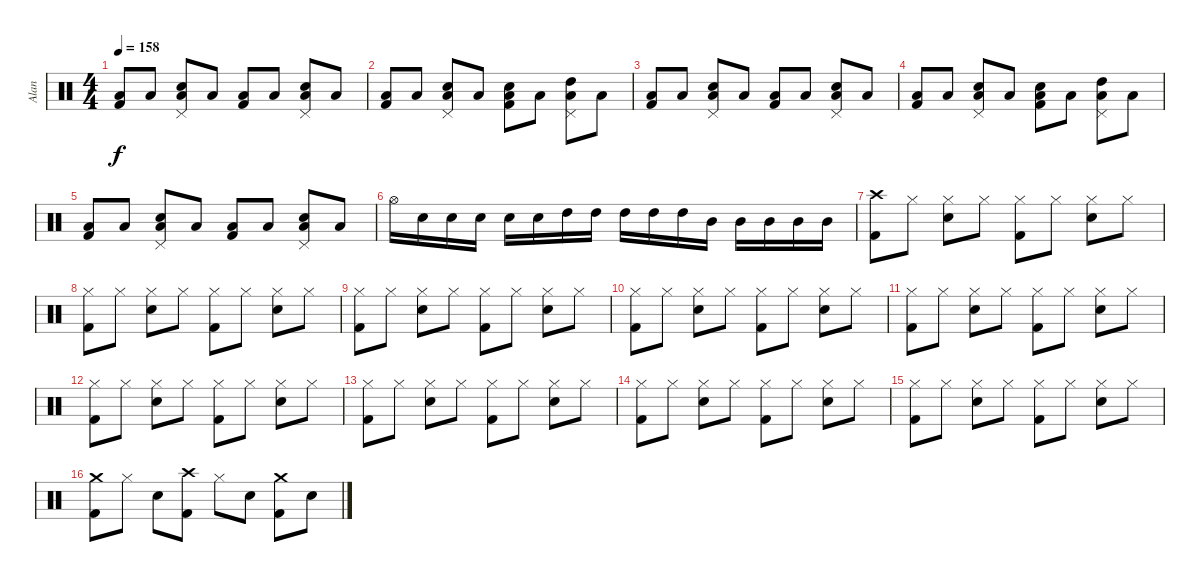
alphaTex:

\track ("Alan" "Alan") {instrument percussion}
\staff {score}
\articulation defaults
\ts (4 4)
\tempo 158
\clef neutral
\ks c
("Low Tom (hit)" "Kick (hit) 2").8{dy f} "Low Tom (hit)".8 ("Low Tom (hit)" "Electric Snare (hit)" "Pedal Hi-Hat (hit)").8 "Low Tom (hit)".8 ("Low Tom (hit)" "Kick (hit) 2").8 "Low Tom (hit)".8 ("Low Tom (hit)" "Electric Snare (hit)" "Pedal Hi-Hat (hit)").8 "Low Tom (hit)".8 |
("Low Tom (hit)" "Kick (hit) 2").8 "Low Tom (hit)".8 ("Low Tom (hit)" "Electric Snare (hit)" "Pedal Hi-Hat (hit)").8 "Low Tom (hit)".8 ("Low Tom (hit)" "Kick (hit) 2" "Electric Snare (hit)").8 "Low Tom (hit)".8 ("Low Tom (hit)" "High Tom (hit)" "Pedal Hi-Hat (hit)").8 "Low Tom (hit)".8 |
("Low Tom (hit)" "Kick (hit) 2").8 "Low Tom (hit)".8 ("Low Tom (hit)" "Electric Snare (hit)" "Pedal Hi-Hat (hit)").8 "Low Tom (hit)".8 ("Low Tom (hit)" "Kick (hit) 2").8 "Low Tom (hit)".8 ("Low Tom (hit)" "Electric Snare (hit)" "Pedal Hi-Hat (hit)").8 "Low Tom (hit)".8 |
("Low Tom (hit)" "Kick (hit) 2").8 "Low Tom (hit)".8 ("Low Tom (hit)" "Electric Snare (hit)" "Pedal Hi-Hat (hit)").8 "Low Tom (hit)".8 ("Low Tom (hit)" "Kick (hit) 2" "Electric Snare (hit)").8 "Low Tom (hit)".8 ("Low Tom (hit)" "High Tom (hit)" "Pedal Hi-Hat (hit)").8 "Low Tom (hit)".8 |
("Low Tom (hit)" "Kick (hit) 2").8 "Low Tom (hit)".8 ("Low Tom (hit)" "Electric Snare (hit)" "Pedal Hi-Hat (hit)").8 "Low Tom (hit)".8 ("Low Tom (hit)" "Kick (hit) 2").8 "Low Tom (hit)".8 ("Low Tom (hit)" "Electric Snare (hit)" "Pedal Hi-Hat (hit)").8 "Low Tom (hit)".8 |
"Hi-Hat (open)".16 "Electric Snare (hit)".16 "Electric Snare (hit)".16 "Electric Snare (hit)".16 "Electric Snare (hit)".16 "Electric Snare (hit)".16 "High Tom (hit)".16 "High Tom (hit)".16 "High Tom (hit)".16 "High Tom (hit)".16 "High Tom (hit)".16 "Mid Tom (hit)".16 "Mid Tom (hit)".16 "Mid Tom (hit)".16 "Mid Tom (hit)".16 "Mid Tom (hit)".16 |
("Kick (hit) 2" "Crash high (hit)").8 "Hi-Hat (closed)".8 ("Hi-Hat (closed)" "Electric Snare (hit)").8 "Hi-Hat (closed)".8 ("Kick (hit) 2" "Hi-Hat (closed)").8 "Hi-Hat (closed)".8 ("Hi-Hat (closed)" "Electric Snare (hit)").8 "Hi-Hat (closed)".8 |
("Kick (hit) 2" "Hi-Hat (closed)").8 "Hi-Hat (closed)".8 ("Hi-Hat (closed)" "Electric Snare (hit)").8 "Hi-Hat (closed)".8 ("Kick (hit) 2" "Hi-Hat (closed)").8 "Hi-Hat (closed)".8 ("Hi-Hat (closed)" "Electric Snare (hit)").8 "Hi-Hat (closed)".8 |
("Kick (hit) 2" "Hi-Hat (closed)").8 "Hi-Hat (closed)".8 ("Hi-Hat (closed)" "Electric Snare (hit)").8 "Hi-Hat (closed)".8 ("Kick (hit) 2" "Hi-Hat (closed)").8 "Hi-Hat (closed)".8 ("Hi-Hat (closed)" "Electric Snare (hit)").8 "Hi-Hat (closed)".8 |
("Kick (hit) 2" "Hi-Hat (closed)").8 "Hi-Hat (closed)".8 ("Hi-Hat (closed)" "Electric Snare (hit)").8 "Hi-Hat (closed)".8 ("Kick (hit) 2" "Hi-Hat (closed)").8 "Hi-Hat (closed)".8 ("Hi-Hat (closed)" "Electric Snare (hit)").8 "Hi-Hat (closed)".8 |
("Kick (hit) 2" "Hi-Hat (closed)").8 "Hi-Hat (closed)".8 ("Hi-Hat (closed)" "Electric Snare (hit)").8 "Hi-Hat (closed)".8 ("Kick (hit) 2" "Hi-Hat (closed)").8 "Hi-Hat (closed)".8 ("Hi-Hat (closed)" "Electric Snare (hit)").8 "Hi-Hat (closed)".8 |
("Kick (hit) 2" "Hi-Hat (closed)").8 "Hi-Hat (closed)".8 ("Hi-Hat (closed)" "Electric Snare (hit)").8 "Hi-Hat (closed)".8 ("Kick (hit) 2" "Hi-Hat (closed)").8 "Hi-Hat (closed)".8 ("Hi-Hat (closed)" "Electric Snare (hit)").8 "Hi-Hat (closed)".8 |
("Kick (hit) 2" "Hi-Hat (closed)").8 "Hi-Hat (closed)".8 ("Hi-Hat (closed)" "Electric Snare (hit)").8 "Hi-Hat (closed)".8 ("Kick (hit) 2" "Hi-Hat (closed)").8 "Hi-Hat (closed)".8 ("Hi-Hat (closed)" "Electric Snare (hit)").8 "Hi-Hat (closed)".8 |
("Kick (hit) 2" "Hi-Hat (closed)").8 "Hi-Hat (closed)".8 ("Hi-Hat (closed)" "Electric Snare (hit)").8 "Hi-Hat (closed)".8 ("Kick (hit) 2" "Hi-Hat (closed)").8 "Hi-Hat (closed)".8 ("Hi-Hat (closed)" "Electric Snare (hit)").8 "Hi-Hat (closed)".8 |
("Kick (hit) 2" "Hi-Hat (closed)").8 "Hi-Hat (closed)".8 ("Hi-Hat (closed)" "Electric Snare (hit)").8 "Hi-Hat (closed)".8 ("Kick (hit) 2" "Hi-Hat (closed)").8 "Hi-Hat (closed)".8 ("Hi-Hat (closed)" "Electric Snare (hit)").8 "Hi-Hat (closed)".8 |
("Kick (hit) 2" "Crash medium (hit)").8 "Hi-Hat (closed)".8 "Electric Snare (hit)".8 ("Kick (hit) 2" "Crash high (hit)").8 "Hi-Hat (closed)".8 "Electric Snare (hit)".8 ("Kick (hit) 2" "Crash medium (hit)").8 "Electric Snare (hit)".8
